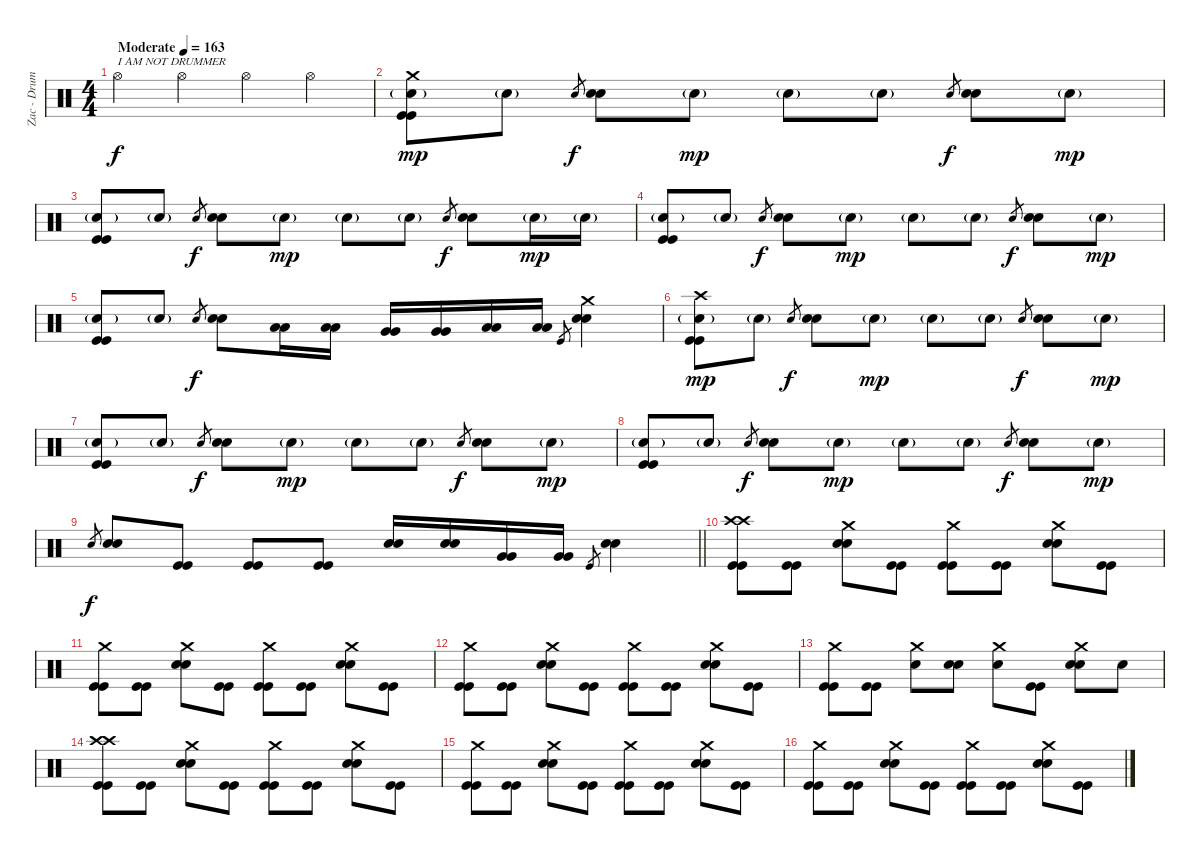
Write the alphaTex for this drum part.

\track ("Zac - Drums" "Zac - Drum") {instrument percussion}
\staff {score}
\articulation defaults
\ts (4 4)
\tempo (163 "Moderate")
\clef neutral
\ks c "Hi-Hat (open)".4{txt "I AM NOT DRUMMER" dy f} "Hi-Hat (open)".4 "Hi-Hat (open)".4 "Hi-Hat (open)".4
|
("Crash medium (hit)" "Electric Snare (hit)"{g} "Kick (hit)" "Kick (hit)").8{dy mp} "Electric Snare (hit)"{g}.8 "Electric Snare (hit)".8{gr dy f} ("Electric Snare (hit)" "Electric Snare (hit)").8 "Electric Snare (hit)"{g}.8{dy mp} "Electric Snare (hit)"{g}.8 "Electric Snare (hit)"{g}.8 "Electric Snare (hit)".8{gr dy f} ("Electric Snare (hit)" "Electric Snare (hit)").8 "Electric Snare (hit)"{g}.8{dy mp} |
("Electric Snare (hit)"{g} "Kick (hit)" "Kick (hit)").8 "Electric Snare (hit)"{g}.8 "Electric Snare (hit)".8{gr dy f} ("Electric Snare (hit)" "Electric Snare (hit)").8 "Electric Snare (hit)"{g}.8{dy mp} "Electric Snare (hit)"{g}.8 "Electric Snare (hit)"{g}.8 "Electric Snare (hit)".8{gr dy f} ("Electric Snare (hit)" "Electric Snare (hit)").8 "Electric Snare (hit)"{g}.16{dy mp} "Electric Snare (hit)"{g}.16 |
("Electric Snare (hit)"{g} "Kick (hit)" "Kick (hit)").8 "Electric Snare (hit)"{g}.8 "Electric Snare (hit)".8{gr dy f} ("Electric Snare (hit)" "Electric Snare (hit)").8 "Electric Snare (hit)"{g}.8{dy mp} "Electric Snare (hit)"{g}.8 "Electric Snare (hit)"{g}.8 "Electric Snare (hit)".8{gr dy f} ("Electric Snare (hit)" "Electric Snare (hit)").8 "Electric Snare (hit)"{g}.8{dy mp} |
("Electric Snare (hit)"{g} "Kick (hit)" "Kick (hit)").8 "Electric Snare (hit)"{g}.8 "Electric Snare (hit)".8{gr dy f} ("Electric Snare (hit)" "Electric Snare (hit)").8 ("Low Tom (hit)" "Low Tom (hit)").16 ("Low Tom (hit)" "Low Tom (hit)").16 ("Very Low Tom (hit)" "Very Low Tom (hit)").16 ("Very Low Tom (hit)" "Very Low Tom (hit)").16 ("Low Floor Tom (hit)" "Low Floor Tom (hit)").16 ("Low Floor Tom (hit)" "Low Floor Tom (hit)").16 "Kick (hit)".8{gr} ("Crash medium (hit)" "Electric Snare (hit)" "Electric Snare (hit)").4 |
("Crash high (hit)" "Electric Snare (hit)"{g} "Kick (hit)" "Kick (hit)").8{dy mp} "Electric Snare (hit)"{g}.8 "Electric Snare (hit)".8{gr dy f} ("Electric Snare (hit)" "Electric Snare (hit)").8 "Electric Snare (hit)"{g}.8{dy mp} "Electric Snare (hit)"{g}.8 "Electric Snare (hit)"{g}.8 "Electric Snare (hit)".8{gr dy f} ("Electric Snare (hit)" "Electric Snare (hit)").8 "Electric Snare (hit)"{g}.8{dy mp} |
("Electric Snare (hit)"{g} "Kick (hit)" "Kick (hit)").8 "Electric Snare (hit)"{g}.8 "Electric Snare (hit)".8{gr dy f} ("Electric Snare (hit)" "Electric Snare (hit)").8 "Electric Snare (hit)"{g}.8{dy mp} "Electric Snare (hit)"{g}.8 "Electric Snare (hit)"{g}.8 "Electric Snare (hit)".8{gr dy f} ("Electric Snare (hit)" "Electric Snare (hit)").8 "Electric Snare (hit)"{g}.8{dy mp} |
("Electric Snare (hit)"{g} "Kick (hit)" "Kick (hit)").8 "Electric Snare (hit)"{g}.8 "Electric Snare (hit)".8{gr dy f} ("Electric Snare (hit)" "Electric Snare (hit)").8 "Electric Snare (hit)"{g}.8{dy mp} "Electric Snare (hit)"{g}.8 "Electric Snare (hit)"{g}.8 "Electric Snare (hit)".8{gr dy f} ("Electric Snare (hit)" "Electric Snare (hit)").8 "Electric Snare (hit)"{g}.8{dy mp} |
\barLineRight lightlight "Electric Snare (hit)".8{gr dy f}
("Electric Snare (hit)" "Electric Snare (hit)").8 ("Kick (hit)" "Kick (hit)").8 ("Kick (hit)" "Kick (hit)").8 ("Kick (hit)" "Kick (hit)").8 ("Electric Snare (hit)" "Electric Snare (hit)").16 ("Electric Snare (hit)" "Electric Snare (hit)").16 ("Very Low Tom (hit)" "Very Low Tom (hit)").16 ("Very Low Tom (hit)" "Very Low Tom (hit)").16 "Kick (hit)".8{gr} ("Electric Snare (hit)" "Electric Snare (hit)").4 |
("Crash high (hit)" "Crash high (hit)" "Kick (hit)" "Kick (hit)").8 ("Kick (hit)" "Kick (hit)").8 ("Crash medium (hit)" "Electric Snare (hit)" "Electric Snare (hit)").8 ("Kick (hit)" "Kick (hit)").8 ("Crash medium (hit)" "Kick (hit)" "Kick (hit)").8 ("Kick (hit)" "Kick (hit)").8 ("Crash medium (hit)" "Electric Snare (hit)" "Electric Snare (hit)").8 ("Kick (hit)" "Kick (hit)").8 |
("Crash medium (hit)" "Kick (hit)" "Kick (hit)").8 ("Kick (hit)" "Kick (hit)").8 ("Crash medium (hit)" "Electric Snare (hit)" "Electric Snare (hit)").8 ("Kick (hit)" "Kick (hit)").8 ("Crash medium (hit)" "Kick (hit)" "Kick (hit)").8 ("Kick (hit)" "Kick (hit)").8 ("Crash medium (hit)" "Electric Snare (hit)" "Electric Snare (hit)").8 ("Kick (hit)" "Kick (hit)").8 |
("Crash medium (hit)" "Kick (hit)" "Kick (hit)").8 ("Kick (hit)" "Kick (hit)").8 ("Crash medium (hit)" "Electric Snare (hit)" "Electric Snare (hit)").8 ("Kick (hit)" "Kick (hit)").8 ("Crash medium (hit)" "Kick (hit)" "Kick (hit)").8 ("Kick (hit)" "Kick (hit)").8 ("Crash medium (hit)" "Electric Snare (hit)" "Electric Snare (hit)").8 ("Kick (hit)" "Kick (hit)").8 |
("Crash medium (hit)" "Kick (hit)" "Kick (hit)").8 ("Kick (hit)" "Kick (hit)").8 ("Crash medium (hit)" "Snare (hit)").8 ("Electric Snare (hit)" "Electric Snare (hit)").8 ("Crash medium (hit)" "Snare (hit)").8 ("Kick (hit)" "Kick (hit)").8 ("Crash medium (hit)" "Electric Snare (hit)" "Electric Snare (hit)").8 "Snare (hit)".8 |
("Crash high (hit)" "Crash high (hit)" "Kick (hit)" "Kick (hit)").8 ("Kick (hit)" "Kick (hit)").8 ("Crash medium (hit)" "Electric Snare (hit)" "Electric Snare (hit)").8 ("Kick (hit)" "Kick (hit)").8 ("Crash medium (hit)" "Kick (hit)" "Kick (hit)").8 ("Kick (hit)" "Kick (hit)").8 ("Crash medium (hit)" "Electric Snare (hit)" "Electric Snare (hit)").8 ("Kick (hit)" "Kick (hit)").8 |
("Crash medium (hit)" "Kick (hit)" "Kick (hit)").8 ("Kick (hit)" "Kick (hit)").8 ("Crash medium (hit)" "Electric Snare (hit)" "Electric Snare (hit)").8 ("Kick (hit)" "Kick (hit)").8 ("Crash medium (hit)" "Kick (hit)" "Kick (hit)").8 ("Kick (hit)" "Kick (hit)").8 ("Crash medium (hit)" "Electric Snare (hit)" "Electric Snare (hit)").8 ("Kick (hit)" "Kick (hit)").8 |
("Crash medium (hit)" "Kick (hit)" "Kick (hit)").8 ("Kick (hit)" "Kick (hit)").8 ("Crash medium (hit)" "Electric Snare (hit)" "Electric Snare (hit)").8 ("Kick (hit)" "Kick (hit)").8 ("Crash medium (hit)" "Kick (hit)" "Kick (hit)").8 ("Kick (hit)" "Kick (hit)").8 ("Crash medium (hit)" "Electric Snare (hit)" "Electric Snare (hit)").8 ("Kick (hit)" "Kick (hit)").8
